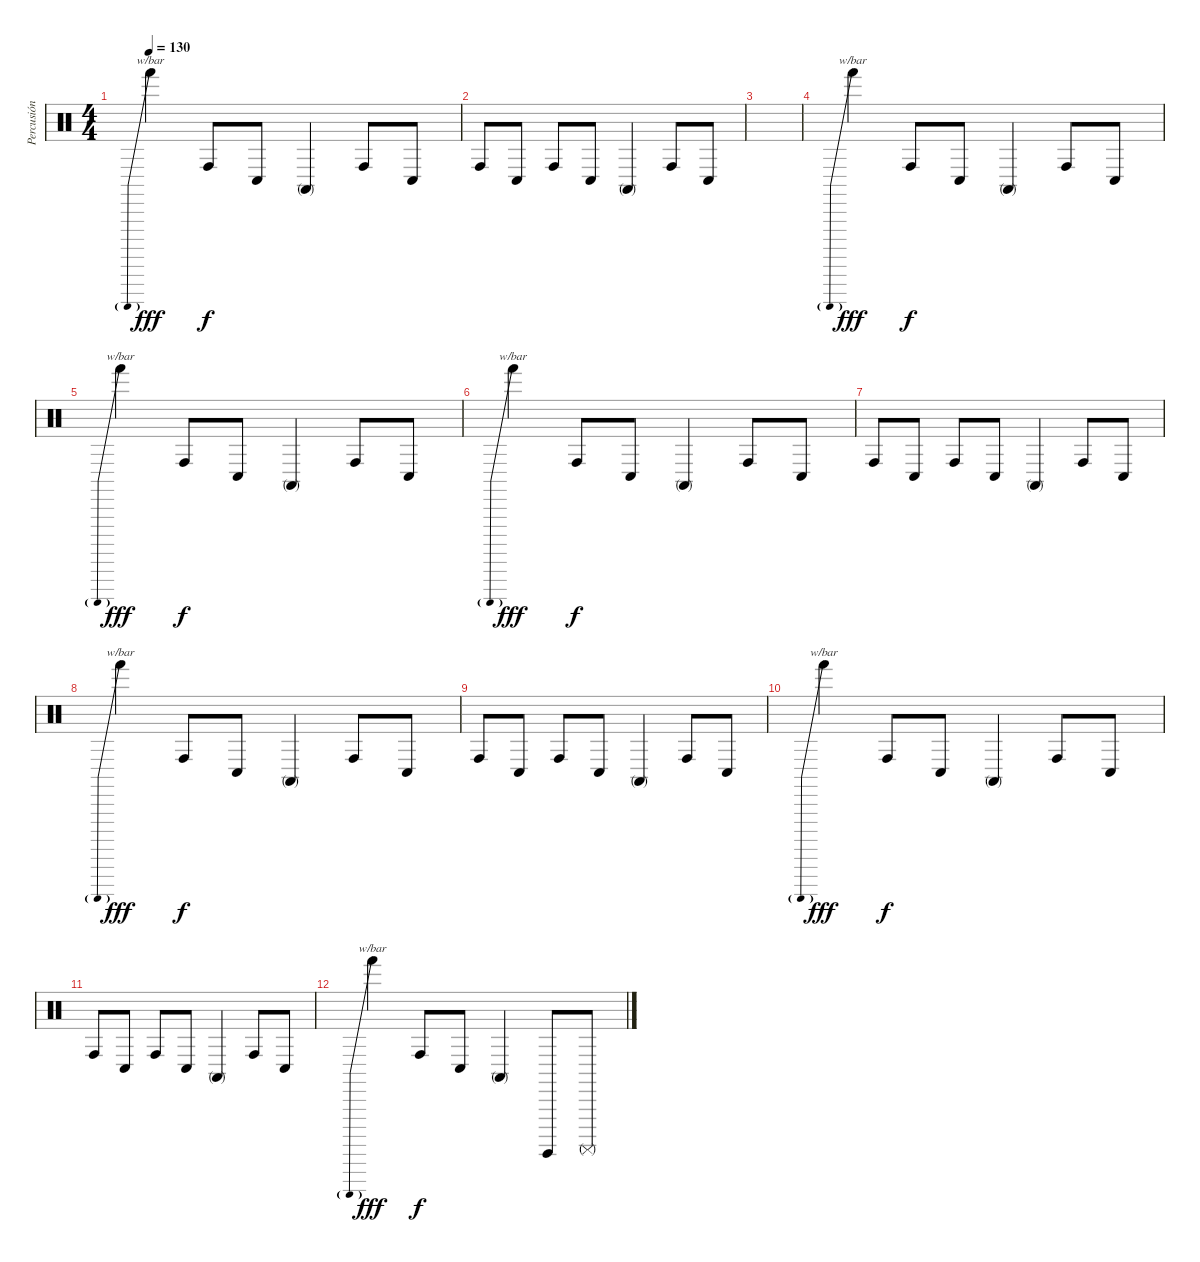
\track ("Percusión" "Percusión") {instrument percussion}
\staff {score}
\articulation defaults
\ts (4 4)
\tempo 130
\clef neutral
\ks c "Hand (hit)".4{tbe (predive default 0 -8 60 -8) dy fff} "Conga high (hit)".8{dy f} "Conga low (hit)".8 "Conga high (mute)".4 "Conga high (hit)".8 "Conga low (hit)".8
|
"Conga high (hit)".8 "Conga low (hit)".8 "Conga high (hit)".8 "Conga low (hit)".8 "Conga high (mute)".4 "Conga high (hit)".8 "Conga low (hit)".8 |
|
"Hand (hit)".4{tbe (predive default 0 -8 60 -8) dy fff} "Conga high (hit)".8{dy f} "Conga low (hit)".8 "Conga high (mute)".4 "Conga high (hit)".8 "Conga low (hit)".8 |
"Hand (hit)".4{tbe (predive default 0 -8 60 -8) dy fff} "Conga high (hit)".8{dy f} "Conga low (hit)".8 "Conga high (mute)".4 "Conga high (hit)".8 "Conga low (hit)".8 |
"Hand (hit)".4{tbe (predive default 0 -8 60 -8) dy fff} "Conga high (hit)".8{dy f} "Conga low (hit)".8 "Conga high (mute)".4 "Conga high (hit)".8 "Conga low (hit)".8 |
"Conga high (hit)".8 "Conga low (hit)".8 "Conga high (hit)".8 "Conga low (hit)".8 "Conga high (mute)".4 "Conga high (hit)".8 "Conga low (hit)".8 |
"Hand (hit)".4{tbe (predive default 0 -8 60 -8) dy fff} "Conga high (hit)".8{dy f} "Conga low (hit)".8 "Conga high (mute)".4 "Conga high (hit)".8 "Conga low (hit)".8 |
"Conga high (hit)".8 "Conga low (hit)".8 "Conga high (hit)".8 "Conga low (hit)".8 "Conga high (mute)".4 "Conga high (hit)".8 "Conga low (hit)".8 |
"Hand (hit)".4{tbe (predive default 0 -8 60 -8) dy fff} "Conga high (hit)".8{dy f} "Conga low (hit)".8 "Conga high (mute)".4 "Conga high (hit)".8 "Conga low (hit)".8 |
"Conga high (hit)".8 "Conga low (hit)".8 "Conga high (hit)".8 "Conga low (hit)".8 "Conga high (mute)".4 "Conga high (hit)".8 "Conga low (hit)".8 |
"Hand (hit)".4{tbe (predive default 0 -8 60 -8) dy fff} "Conga high (hit)".8{dy f} "Conga low (hit)".8 "Conga high (mute)".4 "Surdo (hit)".8 "Surdo (mute)".8
